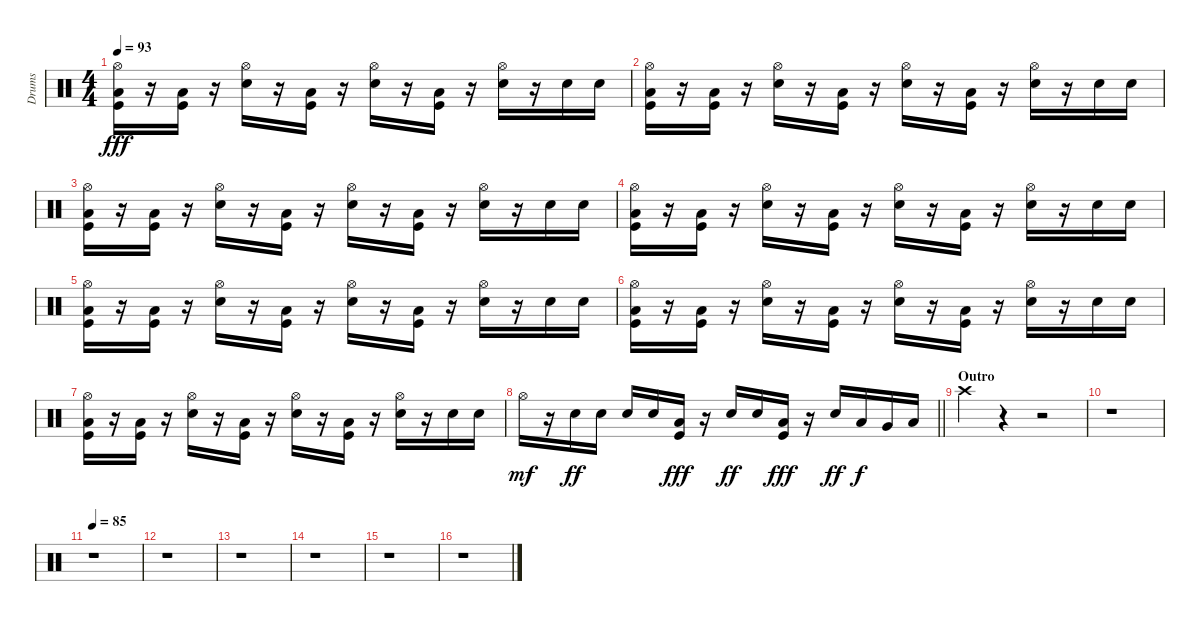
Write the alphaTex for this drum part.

\track ("Drums" "Drums") {instrument percussion}
\staff {score}
\articulation defaults
\ts (4 4)
\tempo 93
\clef neutral
\ks c
("Hi-Hat (open)" "Low Floor Tom (hit)" "Kick (hit)").16{dy fff} r.16 ("Low Floor Tom (hit)" "Kick (hit)").16 r.16 ("Hi-Hat (open)" "Electric Snare (hit)").16 r.16 ("Low Floor Tom (hit)" "Kick (hit)").16 r.16 ("Hi-Hat (open)" "Electric Snare (hit)").16 r.16 ("Low Floor Tom (hit)" "Kick (hit)").16 r.16 ("Hi-Hat (open)" "Electric Snare (hit)").16 r.16 "Electric Snare (hit)".16 "Electric Snare (hit)".16 |
("Hi-Hat (open)" "Low Floor Tom (hit)" "Kick (hit)").16 r.16 ("Low Floor Tom (hit)" "Kick (hit)").16 r.16 ("Hi-Hat (open)" "Electric Snare (hit)").16 r.16 ("Low Floor Tom (hit)" "Kick (hit)").16 r.16 ("Hi-Hat (open)" "Electric Snare (hit)").16 r.16 ("Low Floor Tom (hit)" "Kick (hit)").16 r.16 ("Hi-Hat (open)" "Electric Snare (hit)").16 r.16 "Electric Snare (hit)".16 "Electric Snare (hit)".16 |
("Hi-Hat (open)" "Low Floor Tom (hit)" "Kick (hit)").16 r.16 ("Low Floor Tom (hit)" "Kick (hit)").16 r.16 ("Hi-Hat (open)" "Electric Snare (hit)").16 r.16 ("Low Floor Tom (hit)" "Kick (hit)").16 r.16 ("Hi-Hat (open)" "Electric Snare (hit)").16 r.16 ("Low Floor Tom (hit)" "Kick (hit)").16 r.16 ("Hi-Hat (open)" "Electric Snare (hit)").16 r.16 "Electric Snare (hit)".16 "Electric Snare (hit)".16 |
("Hi-Hat (open)" "Low Floor Tom (hit)" "Kick (hit)").16 r.16 ("Low Floor Tom (hit)" "Kick (hit)").16 r.16 ("Hi-Hat (open)" "Electric Snare (hit)").16 r.16 ("Low Floor Tom (hit)" "Kick (hit)").16 r.16 ("Hi-Hat (open)" "Electric Snare (hit)").16 r.16 ("Low Floor Tom (hit)" "Kick (hit)").16 r.16 ("Hi-Hat (open)" "Electric Snare (hit)").16 r.16 "Electric Snare (hit)".16 "Electric Snare (hit)".16 |
("Hi-Hat (open)" "Low Floor Tom (hit)" "Kick (hit)").16 r.16 ("Low Floor Tom (hit)" "Kick (hit)").16 r.16 ("Hi-Hat (open)" "Electric Snare (hit)").16 r.16 ("Low Floor Tom (hit)" "Kick (hit)").16 r.16 ("Hi-Hat (open)" "Electric Snare (hit)").16 r.16 ("Low Floor Tom (hit)" "Kick (hit)").16 r.16 ("Hi-Hat (open)" "Electric Snare (hit)").16 r.16 "Electric Snare (hit)".16 "Electric Snare (hit)".16 |
("Hi-Hat (open)" "Low Floor Tom (hit)" "Kick (hit)").16 r.16 ("Low Floor Tom (hit)" "Kick (hit)").16 r.16 ("Hi-Hat (open)" "Electric Snare (hit)").16 r.16 ("Low Floor Tom (hit)" "Kick (hit)").16 r.16 ("Hi-Hat (open)" "Electric Snare (hit)").16 r.16 ("Low Floor Tom (hit)" "Kick (hit)").16 r.16 ("Hi-Hat (open)" "Electric Snare (hit)").16 r.16 "Electric Snare (hit)".16 "Electric Snare (hit)".16 |
("Hi-Hat (open)" "Low Floor Tom (hit)" "Kick (hit)").16 r.16 ("Low Floor Tom (hit)" "Kick (hit)").16 r.16 ("Hi-Hat (open)" "Electric Snare (hit)").16 r.16 ("Low Floor Tom (hit)" "Kick (hit)").16 r.16 ("Hi-Hat (open)" "Electric Snare (hit)").16 r.16 ("Low Floor Tom (hit)" "Kick (hit)").16 r.16 ("Hi-Hat (open)" "Electric Snare (hit)").16 r.16 "Electric Snare (hit)".16 "Electric Snare (hit)".16 |
\barLineRight lightlight "Hi-Hat (open)".16{dy mf}
r.16 "Electric Snare (hit)".16{dy ff} "Electric Snare (hit)".16 "Electric Snare (hit)".16 "Electric Snare (hit)".16 ("Low Floor Tom (hit)" "Kick (hit)").16{dy fff} r.16 "Electric Snare (hit)".16{dy ff} "Electric Snare (hit)".16 ("Low Floor Tom (hit)" "Kick (hit)").16{dy fff} r.16 "Electric Snare (hit)".16{dy ff} "Low Tom (hit)".16{dy f} "Very Low Tom (hit)".16 "Low Floor Tom (hit)".16 |
\section ("" "Outro")
"Crash high (hit)".4 r.4 r.2 |
r.1 |
\tempo 85
r.1 |
r.1 |
r.1 |
r.1 |
r.1 |
r.1
